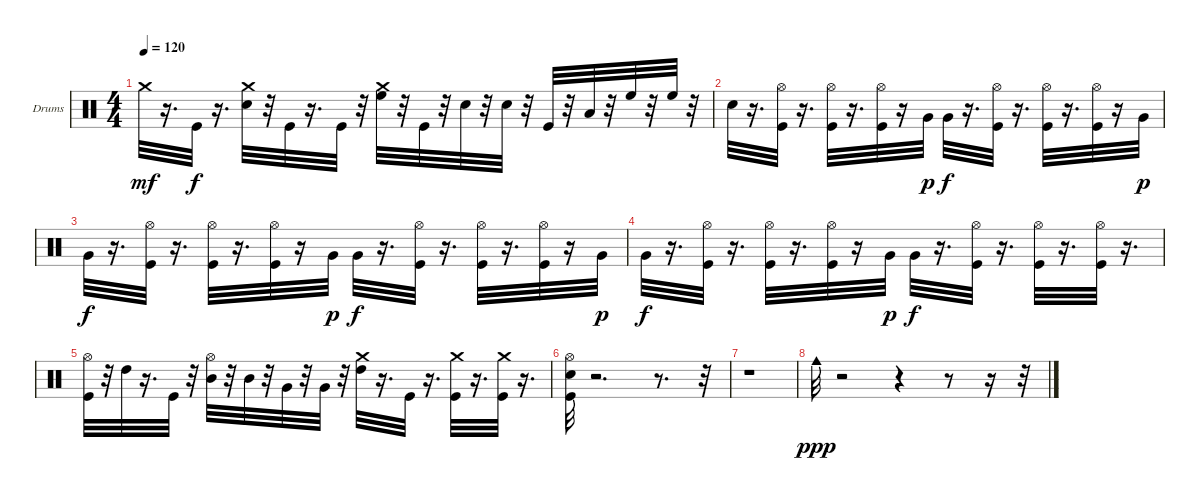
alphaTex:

\bracketExtendMode groupsimilarinstruments
\firstSystemTrackNameOrientation horizontal
\otherSystemsTrackNameOrientation horizontal
\track ("Drumkit" "Drums") {instrument percussion}
\staff {score}
\articulation defaults
\ts (4 4)
\tempo 120
\clef neutral
\ks c "Crash medium (hit)".32{dy mf}
r.16{d} "Kick (hit)".32{dy f} r.16{d} ("Snare (hit) 2" "Crash medium (hit)").32 r.32 "Kick (hit)".32 r.16{d} "Kick (hit)".32 r.32 ("High Floor Tom (hit)" "Crash medium (hit)").32 r.32 "Kick (hit)".32 r.32 "Snare (hit) 2".32 r.32 "Snare (hit) 2".32 r.32 "Kick (hit)".32 r.32 "Low Tom (hit)".32 r.32 "High Floor Tom (hit)".32 r.32 "High Floor Tom (hit)".32 r.32 |
"Snare (hit) 2".32 r.16{d} ("Kick (hit)" "Hi-Hat (open)").32 r.16{d} ("Kick (hit)" "Hi-Hat (open)").32 r.16{d} ("Kick (hit)" "Hi-Hat (open)").32 r.16 "Very Low Tom (hit)".32{dy p} "Very Low Tom (hit)".32{dy f} r.16{d} ("Kick (hit)" "Hi-Hat (open)").32 r.16{d} ("Kick (hit)" "Hi-Hat (open)").32 r.16{d} ("Kick (hit)" "Hi-Hat (open)").32 r.16 "Very Low Tom (hit)".32{dy p} |
"Very Low Tom (hit)".32{dy f} r.16{d} ("Kick (hit)" "Hi-Hat (open)").32 r.16{d} ("Kick (hit)" "Hi-Hat (open)").32 r.16{d} ("Kick (hit)" "Hi-Hat (open)").32 r.16 "Very Low Tom (hit)".32{dy p} "Very Low Tom (hit)".32{dy f} r.16{d} ("Kick (hit)" "Hi-Hat (open)").32 r.16{d} ("Kick (hit)" "Hi-Hat (open)").32 r.16{d} ("Kick (hit)" "Hi-Hat (open)").32 r.16 "Very Low Tom (hit)".32{dy p} |
"Very Low Tom (hit)".32{dy f} r.16{d} ("Kick (hit)" "Hi-Hat (open)").32 r.16{d} ("Kick (hit)" "Hi-Hat (open)").32 r.16{d} ("Kick (hit)" "Hi-Hat (open)").32 r.16 "Very Low Tom (hit)".32{dy p} "Very Low Tom (hit)".32{dy f} r.16{d} ("Kick (hit)" "Hi-Hat (open)").32 r.16{d} ("Kick (hit)" "Hi-Hat (open)").32 r.16{d} ("Kick (hit)" "Hi-Hat (open)").32 r.16{d} |
("Hi-Hat (open)" "Kick (hit)").32 r.32 "High Tom (hit)".32 r.16{d} "Kick (hit)".32 r.32 ("Hi-Hat (open)" "Mid Tom (hit)").32 r.32 "Mid Tom (hit)".32 r.32 "Very Low Tom (hit)".32 r.32 "Very Low Tom (hit)".32 r.32 ("Crash medium (hit)" "High Tom (hit)").32 r.16{d} "Kick (hit)".32 r.16{d} ("Kick (hit)" "Crash medium (hit)").32 r.16{d} ("Kick (hit)" "Crash medium (hit)").32 r.16{d} |
("Snare (hit) 2" "Kick (hit)" "Hi-Hat (open)").32 r.2{d} r.8{d} r.32 |
r.1 |
"Cowbell medium (hit)".32{dy ppp} r.2 r.4 r.8 r.16 r.32
